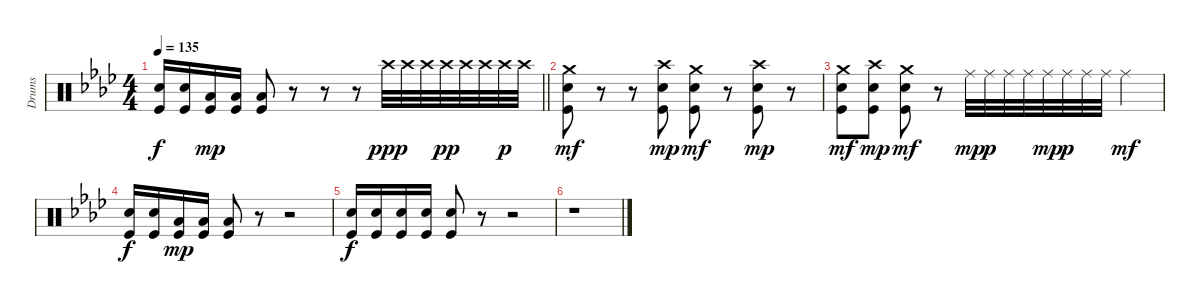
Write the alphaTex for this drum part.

\track ("Drums" "Drums") {instrument percussion}
\staff {score}
\articulation defaults
\ts (4 4)
\tempo 135
\clef neutral
\barLineRight lightlight
\ks fminor
("Snare (hit) 2" "Kick (hit)").16{dy f} ("Snare (hit) 2" "Kick (hit)").16 ("Low Floor Tom (hit)" "Kick (hit)").16{dy mp} ("Low Floor Tom (hit)" "Kick (hit)").16 ("Low Floor Tom (hit)" "Kick (hit)").8 r.8 r.8 r.8 "Crash high (hit)".32{dy ppp} "Crash high (hit)".32 "Crash high (hit)".32 "Crash high (hit)".32{dy pp} "Crash high (hit)".32 "Crash high (hit)".32 "Crash high (hit)".32{dy p} "Crash high (hit)".32 |
("Crash medium (hit)" "Snare (hit) 2" "Kick (hit)").8{dy mf} r.8 r.8 ("Crash high (hit)" "Snare (hit) 2" "Kick (hit)").8{dy mp} ("Crash medium (hit)" "Snare (hit) 2" "Kick (hit)").8{dy mf} r.8 ("Crash high (hit)" "Snare (hit) 2" "Kick (hit)").8{dy mp} r.8 |
("Crash medium (hit)" "Snare (hit) 2" "Kick (hit)").8{dy mf} ("Crash high (hit)" "Snare (hit) 2" "Kick (hit)").8{dy mp} ("Crash medium (hit)" "Snare (hit) 2" "Kick (hit)").8{dy mf} r.8 "Ride (middle)".32{dy mp} "Ride (middle)".32{dy p} "Ride (middle)".32 "Ride (middle)".32 "Ride (middle)".32{dy mp} "Ride (middle)".32{dy p} "Ride (middle)".32 "Ride (middle)".32 "Ride (middle)".4{dy mf} |
("Snare (hit) 2" "Kick (hit)").16{dy f} ("Snare (hit) 2" "Kick (hit)").16 ("Low Floor Tom (hit)" "Kick (hit)").16{dy mp} ("Low Floor Tom (hit)" "Kick (hit)").16 ("Low Floor Tom (hit)" "Kick (hit)").8 r.8 r.2 |
("Snare (hit) 2" "Kick (hit)").16{dy f} ("Snare (hit) 2" "Kick (hit)").16 ("Snare (hit) 2" "Kick (hit)").16 ("Snare (hit) 2" "Kick (hit)").16 ("Snare (hit) 2" "Kick (hit)").8 r.8 r.2 |
r.1
